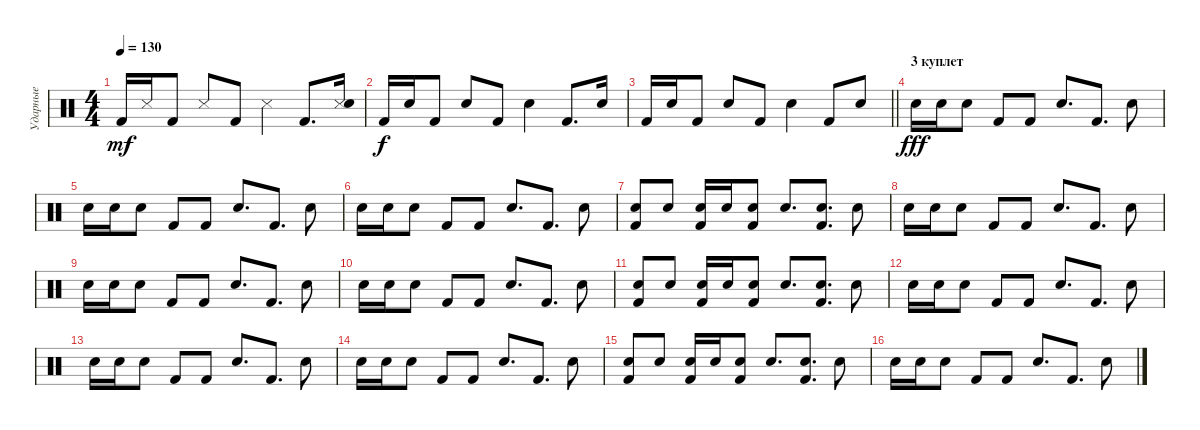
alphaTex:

\track ("Ударные" "Ударные") {instrument percussion}
\staff {score}
\articulation defaults
\ts (4 4)
\tempo 130
\clef neutral
\ks c "Kick (hit) 2".16{dy mf} "Snare (side stick) 3".16 "Kick (hit) 2".8 "Snare (side stick) 3".8 "Kick (hit) 2".8 "Snare (side stick) 3".4 "Kick (hit) 2".8{d}
("Snare (side stick) 3" "Snare (hit) 2").16 |
"Kick (hit) 2".16{dy f} "Snare (hit) 2".16 "Kick (hit) 2".8 "Snare (hit) 2".8 "Kick (hit) 2".8 "Snare (hit) 2".4 "Kick (hit) 2".8{d} "Snare (hit) 2".16 |
\barLineRight lightlight "Kick (hit) 2".16 "Snare (hit) 2".16 "Kick (hit) 2".8 "Snare (hit) 2".8 "Kick (hit) 2".8 "Snare (hit) 2".4 "Kick (hit) 2".8 "Snare (hit) 2".8
|
\section ("" "3 куплет")
"Snare (hit) 2".16{dy fff} "Snare (hit) 2".16 "Snare (hit) 2".8 "Kick (hit) 2".8 "Kick (hit) 2".8 "Snare (hit) 2".8{d} "Kick (hit) 2".8{d} "Snare (hit) 2".8 |
"Snare (hit) 2".16 "Snare (hit) 2".16 "Snare (hit) 2".8 "Kick (hit) 2".8 "Kick (hit) 2".8 "Snare (hit) 2".8{d} "Kick (hit) 2".8{d} "Snare (hit) 2".8 |
"Snare (hit) 2".16 "Snare (hit) 2".16 "Snare (hit) 2".8 "Kick (hit) 2".8 "Kick (hit) 2".8 "Snare (hit) 2".8{d} "Kick (hit) 2".8{d} "Snare (hit) 2".8 |
("Snare (hit) 2" "Kick (hit) 2").8 "Snare (hit) 2".8 ("Snare (hit) 2" "Kick (hit) 2").16 "Snare (hit) 2".16 ("Snare (hit) 2" "Kick (hit) 2").8 "Snare (hit) 2".8{d} ("Snare (hit) 2" "Kick (hit) 2").8{d} "Snare (hit) 2".8 |
"Snare (hit) 2".16 "Snare (hit) 2".16 "Snare (hit) 2".8 "Kick (hit) 2".8 "Kick (hit) 2".8 "Snare (hit) 2".8{d} "Kick (hit) 2".8{d} "Snare (hit) 2".8 |
"Snare (hit) 2".16 "Snare (hit) 2".16 "Snare (hit) 2".8 "Kick (hit) 2".8 "Kick (hit) 2".8 "Snare (hit) 2".8{d} "Kick (hit) 2".8{d} "Snare (hit) 2".8 |
"Snare (hit) 2".16 "Snare (hit) 2".16 "Snare (hit) 2".8 "Kick (hit) 2".8 "Kick (hit) 2".8 "Snare (hit) 2".8{d} "Kick (hit) 2".8{d} "Snare (hit) 2".8 |
("Snare (hit) 2" "Kick (hit) 2").8 "Snare (hit) 2".8 ("Snare (hit) 2" "Kick (hit) 2").16 "Snare (hit) 2".16 ("Snare (hit) 2" "Kick (hit) 2").8 "Snare (hit) 2".8{d} ("Snare (hit) 2" "Kick (hit) 2").8{d} "Snare (hit) 2".8 |
"Snare (hit) 2".16 "Snare (hit) 2".16 "Snare (hit) 2".8 "Kick (hit) 2".8 "Kick (hit) 2".8 "Snare (hit) 2".8{d} "Kick (hit) 2".8{d} "Snare (hit) 2".8 |
"Snare (hit) 2".16 "Snare (hit) 2".16 "Snare (hit) 2".8 "Kick (hit) 2".8 "Kick (hit) 2".8 "Snare (hit) 2".8{d} "Kick (hit) 2".8{d} "Snare (hit) 2".8 |
"Snare (hit) 2".16 "Snare (hit) 2".16 "Snare (hit) 2".8 "Kick (hit) 2".8 "Kick (hit) 2".8 "Snare (hit) 2".8{d} "Kick (hit) 2".8{d} "Snare (hit) 2".8 |
("Snare (hit) 2" "Kick (hit) 2").8 "Snare (hit) 2".8 ("Snare (hit) 2" "Kick (hit) 2").16 "Snare (hit) 2".16 ("Snare (hit) 2" "Kick (hit) 2").8 "Snare (hit) 2".8{d} ("Snare (hit) 2" "Kick (hit) 2").8{d} "Snare (hit) 2".8 |
"Snare (hit) 2".16 "Snare (hit) 2".16 "Snare (hit) 2".8 "Kick (hit) 2".8 "Kick (hit) 2".8 "Snare (hit) 2".8{d} "Kick (hit) 2".8{d} "Snare (hit) 2".8
